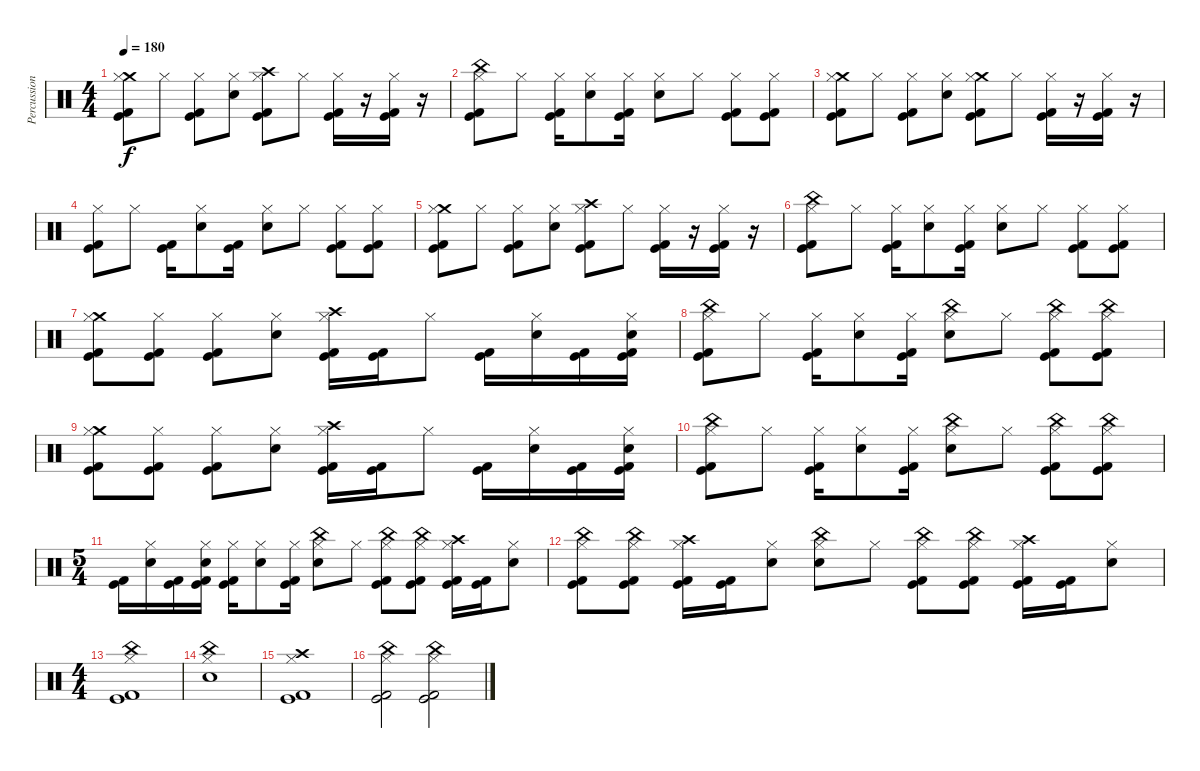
\track ("Percussion" "Percussion") {instrument percussion}
\staff {score}
\articulation defaults
\ts (4 4)
\tempo 180
\clef neutral
\ks c
("Crash medium (hit)" "Hi-Hat (closed)" "Kick (hit)" "Kick (hit) 2").8{dy f} "Hi-Hat (closed)".8 ("Hi-Hat (closed)" "Kick (hit)" "Kick (hit) 2").8 ("Hi-Hat (closed)" "Electric Snare (hit)").8 ("Crash high (hit)" "Hi-Hat (closed)" "Kick (hit)" "Kick (hit) 2").8 "Hi-Hat (closed)".8 ("Hi-Hat (closed)" "Kick (hit)" "Kick (hit) 2").16 r.16 ("Hi-Hat (closed)" "Kick (hit)" "Kick (hit) 2").16 r.16 |
("China (hit)" "Hi-Hat (closed)" "Kick (hit)" "Kick (hit) 2").8 "Hi-Hat (closed)".8 ("Hi-Hat (closed)" "Kick (hit)" "Kick (hit) 2").16 ("Hi-Hat (closed)" "Electric Snare (hit)").8 ("Hi-Hat (closed)" "Kick (hit)" "Kick (hit) 2").16 ("Hi-Hat (closed)" "Electric Snare (hit)").8 "Hi-Hat (closed)".8 ("Hi-Hat (closed)" "Kick (hit)" "Kick (hit) 2").8 ("Hi-Hat (closed)" "Kick (hit)" "Kick (hit) 2").8 |
("Crash medium (hit)" "Hi-Hat (closed)" "Kick (hit)" "Kick (hit) 2").8 "Hi-Hat (closed)".8 ("Hi-Hat (closed)" "Kick (hit)" "Kick (hit) 2").8 ("Hi-Hat (closed)" "Electric Snare (hit)").8 ("Crash medium (hit)" "Hi-Hat (closed)" "Kick (hit)" "Kick (hit) 2").8 "Hi-Hat (closed)".8 ("Hi-Hat (closed)" "Kick (hit)" "Kick (hit) 2").16 r.16 ("Hi-Hat (closed)" "Kick (hit)" "Kick (hit) 2").16 r.16 |
("Hi-Hat (closed)" "Kick (hit)" "Kick (hit) 2").8 "Hi-Hat (closed)".8 ("Kick (hit)" "Kick (hit) 2").16 ("Hi-Hat (closed)" "Electric Snare (hit)").8 ("Kick (hit)" "Kick (hit) 2").16 ("Hi-Hat (closed)" "Electric Snare (hit)").8 "Hi-Hat (closed)".8 ("Hi-Hat (closed)" "Kick (hit)" "Kick (hit) 2").8 ("Hi-Hat (closed)" "Kick (hit)" "Kick (hit) 2").8 |
("Crash medium (hit)" "Hi-Hat (closed)" "Kick (hit)" "Kick (hit) 2").8 "Hi-Hat (closed)".8 ("Hi-Hat (closed)" "Kick (hit)" "Kick (hit) 2").8 ("Hi-Hat (closed)" "Electric Snare (hit)").8 ("Crash high (hit)" "Hi-Hat (closed)" "Kick (hit)" "Kick (hit) 2").8 "Hi-Hat (closed)".8 ("Hi-Hat (closed)" "Kick (hit)" "Kick (hit) 2").16 r.16 ("Hi-Hat (closed)" "Kick (hit)" "Kick (hit) 2").16 r.16 |
("China (hit)" "Hi-Hat (closed)" "Kick (hit)" "Kick (hit) 2").8 "Hi-Hat (closed)".8 ("Hi-Hat (closed)" "Kick (hit)" "Kick (hit) 2").16 ("Hi-Hat (closed)" "Electric Snare (hit)").8 ("Hi-Hat (closed)" "Kick (hit)" "Kick (hit) 2").16 ("Hi-Hat (closed)" "Electric Snare (hit)").8 "Hi-Hat (closed)".8 ("Hi-Hat (closed)" "Kick (hit)" "Kick (hit) 2").8 ("Hi-Hat (closed)" "Kick (hit)" "Kick (hit) 2").8 |
("Crash medium (hit)" "Hi-Hat (closed)" "Kick (hit)" "Kick (hit) 2").8 ("Hi-Hat (closed)" "Kick (hit)" "Kick (hit) 2").8 ("Hi-Hat (closed)" "Kick (hit)" "Kick (hit) 2").8 ("Hi-Hat (closed)" "Electric Snare (hit)").8 ("Crash high (hit)" "Hi-Hat (closed)" "Kick (hit)" "Kick (hit) 2").16 ("Kick (hit)" "Kick (hit) 2").16 "Hi-Hat (closed)".8 ("Kick (hit)" "Kick (hit) 2").16 ("Hi-Hat (closed)" "Electric Snare (hit)").16 ("Kick (hit)" "Kick (hit) 2").16 ("Hi-Hat (closed)" "Electric Snare (hit)" "Kick (hit)" "Kick (hit) 2").16 |
("China (hit)" "Hi-Hat (closed)" "Kick (hit)" "Kick (hit) 2").8 "Hi-Hat (closed)".8 ("Hi-Hat (closed)" "Kick (hit)" "Kick (hit) 2").16 ("Hi-Hat (closed)" "Electric Snare (hit)").8 ("Hi-Hat (closed)" "Kick (hit)" "Kick (hit) 2").16 ("China (hit)" "Hi-Hat (closed)" "Electric Snare (hit)").8 "Hi-Hat (closed)".8 ("China (hit)" "Hi-Hat (closed)" "Kick (hit)" "Kick (hit) 2").8 ("China (hit)" "Hi-Hat (closed)" "Kick (hit)" "Kick (hit) 2").8 |
("Crash medium (hit)" "Hi-Hat (closed)" "Kick (hit)" "Kick (hit) 2").8 ("Hi-Hat (closed)" "Kick (hit)" "Kick (hit) 2").8 ("Hi-Hat (closed)" "Kick (hit)" "Kick (hit) 2").8 ("Hi-Hat (closed)" "Electric Snare (hit)").8 ("Crash high (hit)" "Hi-Hat (closed)" "Kick (hit)" "Kick (hit) 2").16 ("Kick (hit)" "Kick (hit) 2").16 "Hi-Hat (closed)".8 ("Kick (hit)" "Kick (hit) 2").16 ("Hi-Hat (closed)" "Electric Snare (hit)").16 ("Kick (hit)" "Kick (hit) 2").16 ("Hi-Hat (closed)" "Electric Snare (hit)" "Kick (hit)" "Kick (hit) 2").16 |
("China (hit)" "Hi-Hat (closed)" "Kick (hit)" "Kick (hit) 2").8 "Hi-Hat (closed)".8 ("Hi-Hat (closed)" "Kick (hit)" "Kick (hit) 2").16 ("Hi-Hat (closed)" "Electric Snare (hit)").8 ("Hi-Hat (closed)" "Kick (hit)" "Kick (hit) 2").16 ("China (hit)" "Hi-Hat (closed)" "Electric Snare (hit)").8 "Hi-Hat (closed)".8 ("China (hit)" "Hi-Hat (closed)" "Kick (hit)" "Kick (hit) 2").8 ("China (hit)" "Hi-Hat (closed)" "Kick (hit)" "Kick (hit) 2").8 |
\ts (5 4)
("Kick (hit)" "Kick (hit) 2").16 ("Hi-Hat (closed)" "Electric Snare (hit)").16 ("Kick (hit)" "Kick (hit) 2").16 ("Hi-Hat (closed)" "Electric Snare (hit)" "Kick (hit)" "Kick (hit) 2").16 ("Hi-Hat (closed)" "Kick (hit)" "Kick (hit) 2").16 ("Hi-Hat (closed)" "Electric Snare (hit)").8 ("Hi-Hat (closed)" "Kick (hit)" "Kick (hit) 2").16 ("China (hit)" "Hi-Hat (closed)" "Electric Snare (hit)").8 "Hi-Hat (closed)".8 ("China (hit)" "Hi-Hat (closed)" "Kick (hit)" "Kick (hit) 2").8 ("China (hit)" "Hi-Hat (closed)" "Kick (hit)" "Kick (hit) 2").8 ("Crash high (hit)" "Hi-Hat (closed)" "Kick (hit)" "Kick (hit) 2").16 ("Kick (hit)" "Kick (hit) 2").16 ("Hi-Hat (closed)" "Electric Snare (hit)").8 |
("China (hit)" "Hi-Hat (closed)" "Kick (hit)" "Kick (hit) 2").8 ("China (hit)" "Hi-Hat (closed)" "Kick (hit)" "Kick (hit) 2").8 ("Crash high (hit)" "Hi-Hat (closed)" "Kick (hit)" "Kick (hit) 2").16 ("Kick (hit)" "Kick (hit) 2").16 ("Hi-Hat (closed)" "Electric Snare (hit)").8 ("China (hit)" "Hi-Hat (closed)" "Electric Snare (hit)").8 "Hi-Hat (closed)".8 ("China (hit)" "Hi-Hat (closed)" "Kick (hit)" "Kick (hit) 2").8 ("China (hit)" "Hi-Hat (closed)" "Kick (hit)" "Kick (hit) 2").8 ("Crash high (hit)" "Hi-Hat (closed)" "Kick (hit)" "Kick (hit) 2").16 ("Kick (hit)" "Kick (hit) 2").16 ("Hi-Hat (closed)" "Electric Snare (hit)").8 |
\ts (4 4)
("China (hit)" "Hi-Hat (closed)" "Kick (hit)" "Kick (hit) 2").1 |
("China (hit)" "Hi-Hat (closed)" "Electric Snare (hit)").1 |
("Crash high (hit)" "Hi-Hat (closed)" "Kick (hit)" "Kick (hit) 2").1 |
("China (hit)" "Hi-Hat (closed)" "Kick (hit)" "Kick (hit) 2").2 ("China (hit)" "Hi-Hat (closed)" "Kick (hit)" "Kick (hit) 2").2
